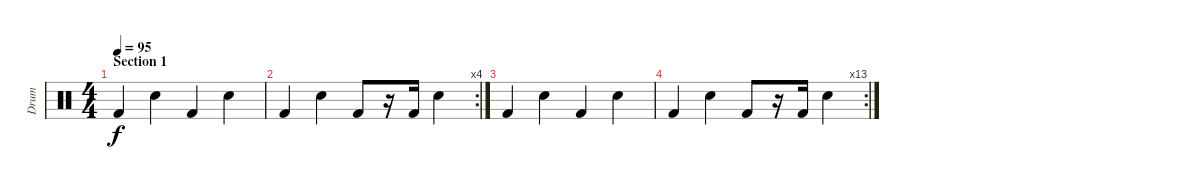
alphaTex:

\track ("Drum" "Drum") {instrument percussion}
\staff {score}
\articulation defaults
\ts (4 4)
\section ("" "Section 1")
\tempo 95
\clef neutral
\ks c "Kick (hit) 2".4{dy f} "Hand Clap (hit)".4 "Kick (hit) 2".4 "Hand Clap (hit)".4
|
\rc 4 "Kick (hit) 2".4 "Hand Clap (hit)".4 "Kick (hit) 2".8
r.16 "Kick (hit) 2".16 "Hand Clap (hit)".4 |
"Kick (hit) 2".4 "Hand Clap (hit)".4 "Kick (hit) 2".4 "Hand Clap (hit)".4 |
\rc 13 "Kick (hit) 2".4 "Hand Clap (hit)".4 "Kick (hit) 2".8
r.16 "Kick (hit) 2".16 "Hand Clap (hit)".4
